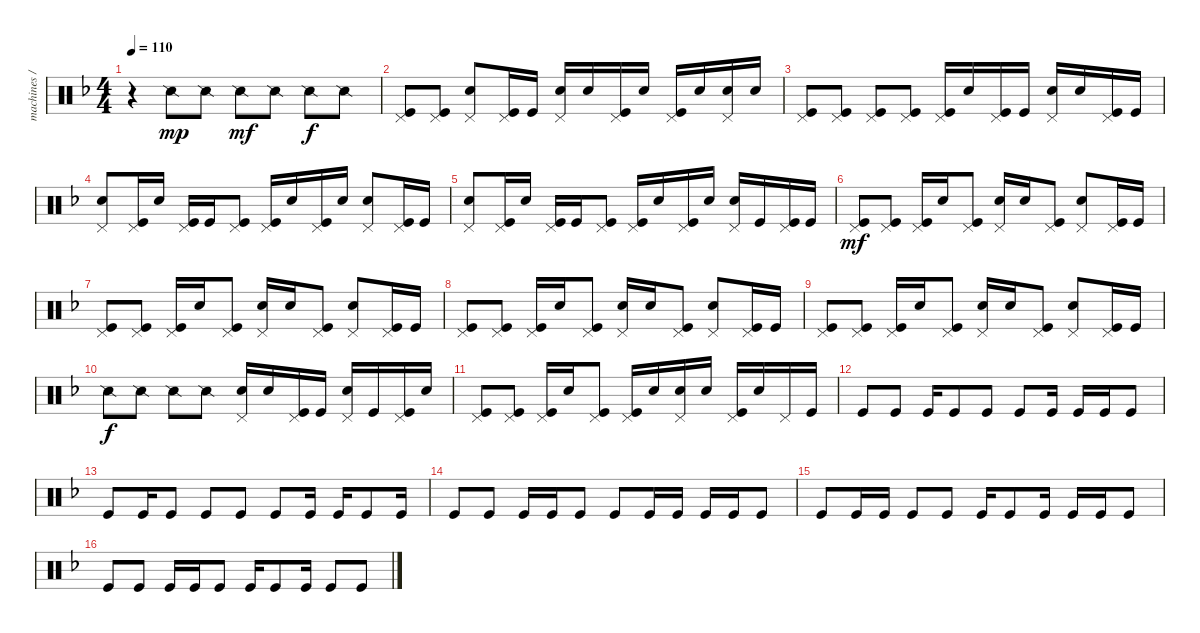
\track ("machines / drum" "machines /") {instrument percussion}
\staff {score}
\articulation defaults
\ts (4 4)
\tempo 110
\clef neutral
\ks f
r.4{dy f} "Snare (side stick) 2".8{dy mp} "Snare (side stick) 2".8 "Snare (side stick) 2".8{dy mf} "Snare (side stick) 2".8 "Snare (side stick) 2".8{dy f} "Snare (side stick) 2".8 |
("Pedal Hi-Hat (hit)" "Kick (hit)").8 ("Pedal Hi-Hat (hit)" "Kick (hit)").8 ("Pedal Hi-Hat (hit)" "Electric Snare (hit)").8 ("Pedal Hi-Hat (hit)" "Kick (hit)").16 "Kick (hit)".16 ("Pedal Hi-Hat (hit)" "Electric Snare (hit)").16 "Electric Snare (hit)".16 ("Pedal Hi-Hat (hit)" "Kick (hit)").16 "Electric Snare (hit)".16 ("Pedal Hi-Hat (hit)" "Kick (hit)").16 "Electric Snare (hit)".16 ("Pedal Hi-Hat (hit)" "Electric Snare (hit)").16 "Electric Snare (hit)".16 |
("Pedal Hi-Hat (hit)" "Kick (hit)").8 ("Pedal Hi-Hat (hit)" "Kick (hit)").8 ("Pedal Hi-Hat (hit)" "Kick (hit)").8 ("Pedal Hi-Hat (hit)" "Kick (hit)").8 ("Pedal Hi-Hat (hit)" "Kick (hit)").16 "Electric Snare (hit)".16 ("Pedal Hi-Hat (hit)" "Kick (hit)").16 "Kick (hit)".16 ("Pedal Hi-Hat (hit)" "Electric Snare (hit)").16 "Electric Snare (hit)".16 ("Pedal Hi-Hat (hit)" "Kick (hit)").16 "Kick (hit)".16 |
("Pedal Hi-Hat (hit)" "Electric Snare (hit)").8 ("Pedal Hi-Hat (hit)" "Kick (hit)").16 "Electric Snare (hit)".16 ("Pedal Hi-Hat (hit)" "Kick (hit)").16 "Kick (hit)".16 ("Pedal Hi-Hat (hit)" "Kick (hit)").8 ("Pedal Hi-Hat (hit)" "Kick (hit)").16 "Electric Snare (hit)".16 ("Pedal Hi-Hat (hit)" "Kick (hit)").16 "Electric Snare (hit)".16 ("Pedal Hi-Hat (hit)" "Electric Snare (hit)").8 ("Pedal Hi-Hat (hit)" "Kick (hit)").16 "Kick (hit)".16 |
("Pedal Hi-Hat (hit)" "Electric Snare (hit)").8 ("Pedal Hi-Hat (hit)" "Kick (hit)").16 "Electric Snare (hit)".16 ("Pedal Hi-Hat (hit)" "Kick (hit)").16 "Kick (hit)".16 ("Pedal Hi-Hat (hit)" "Kick (hit)").8 ("Pedal Hi-Hat (hit)" "Kick (hit)").16 "Electric Snare (hit)".16 ("Pedal Hi-Hat (hit)" "Kick (hit)").16 "Electric Snare (hit)".16 ("Pedal Hi-Hat (hit)" "Electric Snare (hit)").16 "Kick (hit)".16 ("Pedal Hi-Hat (hit)" "Kick (hit)").16 "Kick (hit)".16 |
("Pedal Hi-Hat (hit)" "Kick (hit)").8{dy mf} ("Pedal Hi-Hat (hit)" "Kick (hit)").8 ("Pedal Hi-Hat (hit)" "Kick (hit)").16 "Electric Snare (hit)".16 ("Pedal Hi-Hat (hit)" "Kick (hit)").8 ("Pedal Hi-Hat (hit)" "Electric Snare (hit)").16 "Electric Snare (hit)".16 ("Pedal Hi-Hat (hit)" "Kick (hit)").8 ("Pedal Hi-Hat (hit)" "Electric Snare (hit)").8 ("Pedal Hi-Hat (hit)" "Kick (hit)").16 "Kick (hit)".16 |
("Pedal Hi-Hat (hit)" "Kick (hit)").8 ("Pedal Hi-Hat (hit)" "Kick (hit)").8 ("Pedal Hi-Hat (hit)" "Kick (hit)").16 "Electric Snare (hit)".16 ("Pedal Hi-Hat (hit)" "Kick (hit)").8 ("Pedal Hi-Hat (hit)" "Electric Snare (hit)").16 "Electric Snare (hit)".16 ("Pedal Hi-Hat (hit)" "Kick (hit)").8 ("Pedal Hi-Hat (hit)" "Electric Snare (hit)").8 ("Pedal Hi-Hat (hit)" "Kick (hit)").16 "Kick (hit)".16 |
("Pedal Hi-Hat (hit)" "Kick (hit)").8 ("Pedal Hi-Hat (hit)" "Kick (hit)").8 ("Pedal Hi-Hat (hit)" "Kick (hit)").16 "Electric Snare (hit)".16 ("Pedal Hi-Hat (hit)" "Kick (hit)").8 ("Pedal Hi-Hat (hit)" "Electric Snare (hit)").16 "Electric Snare (hit)".16 ("Pedal Hi-Hat (hit)" "Kick (hit)").8 ("Pedal Hi-Hat (hit)" "Electric Snare (hit)").8 ("Pedal Hi-Hat (hit)" "Kick (hit)").16 "Kick (hit)".16 |
("Pedal Hi-Hat (hit)" "Kick (hit)").8 ("Pedal Hi-Hat (hit)" "Kick (hit)").8 ("Pedal Hi-Hat (hit)" "Kick (hit)").16 "Electric Snare (hit)".16 ("Pedal Hi-Hat (hit)" "Kick (hit)").8 ("Pedal Hi-Hat (hit)" "Electric Snare (hit)").16 "Electric Snare (hit)".16 ("Pedal Hi-Hat (hit)" "Kick (hit)").8 ("Pedal Hi-Hat (hit)" "Electric Snare (hit)").8 ("Pedal Hi-Hat (hit)" "Kick (hit)").16 "Kick (hit)".16 |
"Snare (side stick) 2".8{dy f} "Snare (side stick) 2".8 "Snare (side stick) 2".8 "Snare (side stick) 2".8 ("Pedal Hi-Hat (hit)" "Electric Snare (hit)").16 "Electric Snare (hit)".16 ("Pedal Hi-Hat (hit)" "Kick (hit)").16 "Kick (hit)".16 ("Pedal Hi-Hat (hit)" "Electric Snare (hit)").16 "Kick (hit)".16 ("Pedal Hi-Hat (hit)" "Kick (hit)").16 "Electric Snare (hit)".16 |
("Pedal Hi-Hat (hit)" "Kick (hit)").8 ("Pedal Hi-Hat (hit)" "Kick (hit)").8 ("Pedal Hi-Hat (hit)" "Kick (hit)").16 "Electric Snare (hit)".16 ("Pedal Hi-Hat (hit)" "Kick (hit)").8 ("Pedal Hi-Hat (hit)" "Kick (hit)").16 "Electric Snare (hit)".16 ("Pedal Hi-Hat (hit)" "Electric Snare (hit)").16 "Electric Snare (hit)".16 ("Pedal Hi-Hat (hit)" "Kick (hit)").16 "Electric Snare (hit)".16 "Pedal Hi-Hat (hit)".16 "Kick (hit)".16 |
"Kick (hit)".8 "Kick (hit)".8 "Kick (hit)".16 "Kick (hit)".8 "Kick (hit)".8 "Kick (hit)".8 "Kick (hit)".16 "Kick (hit)".16 "Kick (hit)".16 "Kick (hit)".8 |
"Kick (hit)".8 "Kick (hit)".16 "Kick (hit)".8 "Kick (hit)".8 "Kick (hit)".8 "Kick (hit)".8 "Kick (hit)".16 "Kick (hit)".16 "Kick (hit)".8 "Kick (hit)".16 |
"Kick (hit)".8 "Kick (hit)".8 "Kick (hit)".16 "Kick (hit)".16 "Kick (hit)".8 "Kick (hit)".8 "Kick (hit)".16 "Kick (hit)".16 "Kick (hit)".16 "Kick (hit)".16 "Kick (hit)".8 |
"Kick (hit)".8 "Kick (hit)".16 "Kick (hit)".16 "Kick (hit)".8 "Kick (hit)".8 "Kick (hit)".16 "Kick (hit)".8 "Kick (hit)".16 "Kick (hit)".16 "Kick (hit)".16 "Kick (hit)".8 |
"Kick (hit)".8 "Kick (hit)".8 "Kick (hit)".16 "Kick (hit)".16 "Kick (hit)".8 "Kick (hit)".16 "Kick (hit)".8 "Kick (hit)".16 "Kick (hit)".8 "Kick (hit)".8
